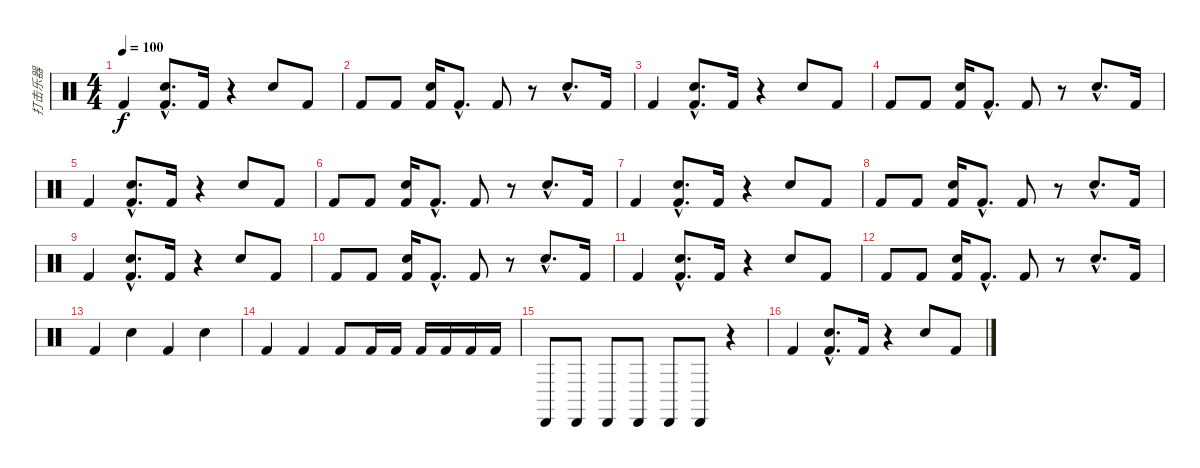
\track ("打击乐器" "打击乐器") {instrument percussion}
\staff {score}
\articulation defaults
\ts (4 4)
\tempo 100
\clef neutral
\ks c "Kick (hit) 2".4{dy f}
("Hand Clap (hit)"{hac} "Kick (hit) 2"{hac}).8{d} "Kick (hit) 2".16 r.4 "Hand Clap (hit)".8 "Kick (hit) 2".8 |
"Kick (hit) 2".8 "Kick (hit) 2".8 ("Hand Clap (hit)" "Kick (hit) 2").16 "Kick (hit) 2"{hac}.8{d} "Kick (hit) 2".8 r.8 "Hand Clap (hit)"{hac}.8{d} "Kick (hit) 2".16 |
"Kick (hit) 2".4 ("Hand Clap (hit)"{hac} "Kick (hit) 2"{hac}).8{d} "Kick (hit) 2".16 r.4 "Hand Clap (hit)".8 "Kick (hit) 2".8 |
"Kick (hit) 2".8 "Kick (hit) 2".8 ("Hand Clap (hit)" "Kick (hit) 2").16 "Kick (hit) 2"{hac}.8{d} "Kick (hit) 2".8 r.8 "Hand Clap (hit)"{hac}.8{d} "Kick (hit) 2".16 |
"Kick (hit) 2".4 ("Hand Clap (hit)"{hac} "Kick (hit) 2"{hac}).8{d} "Kick (hit) 2".16 r.4 "Hand Clap (hit)".8 "Kick (hit) 2".8 |
"Kick (hit) 2".8 "Kick (hit) 2".8 ("Hand Clap (hit)" "Kick (hit) 2").16 "Kick (hit) 2"{hac}.8{d} "Kick (hit) 2".8 r.8 "Hand Clap (hit)"{hac}.8{d} "Kick (hit) 2".16 |
"Kick (hit) 2".4 ("Hand Clap (hit)"{hac} "Kick (hit) 2"{hac}).8{d} "Kick (hit) 2".16 r.4 "Hand Clap (hit)".8 "Kick (hit) 2".8 |
"Kick (hit) 2".8 "Kick (hit) 2".8 ("Hand Clap (hit)" "Kick (hit) 2").16 "Kick (hit) 2"{hac}.8{d} "Kick (hit) 2".8 r.8 "Hand Clap (hit)"{hac}.8{d} "Kick (hit) 2".16 |
"Kick (hit) 2".4 ("Hand Clap (hit)"{hac} "Kick (hit) 2"{hac}).8{d} "Kick (hit) 2".16 r.4 "Hand Clap (hit)".8 "Kick (hit) 2".8 |
"Kick (hit) 2".8 "Kick (hit) 2".8 ("Hand Clap (hit)" "Kick (hit) 2").16 "Kick (hit) 2"{hac}.8{d} "Kick (hit) 2".8 r.8 "Hand Clap (hit)"{hac}.8{d} "Kick (hit) 2".16 |
"Kick (hit) 2".4 ("Hand Clap (hit)"{hac} "Kick (hit) 2"{hac}).8{d} "Kick (hit) 2".16 r.4 "Hand Clap (hit)".8 "Kick (hit) 2".8 |
"Kick (hit) 2".8 "Kick (hit) 2".8 ("Hand Clap (hit)" "Kick (hit) 2").16 "Kick (hit) 2"{hac}.8{d} "Kick (hit) 2".8 r.8 "Hand Clap (hit)"{hac}.8{d} "Kick (hit) 2".16 |
"Kick (hit) 2".4 "Hand Clap (hit)".4 "Kick (hit) 2".4 "Hand Clap (hit)".4 |
"Kick (hit) 2".4 "Kick (hit) 2".4 "Kick (hit) 2".8 "Kick (hit) 2".16 "Kick (hit) 2".16 "Kick (hit) 2".16 "Kick (hit) 2".16 "Kick (hit) 2".16 "Kick (hit) 2".16 |
"Cabasa (hit)".8 "Cabasa (hit)".8 "Cabasa (hit)".8 "Cabasa (hit)".8 "Cabasa (hit)".8 "Cabasa (hit)".8 r.4 |
"Kick (hit) 2".4 ("Hand Clap (hit)"{hac} "Kick (hit) 2"{hac}).8{d} "Kick (hit) 2".16 r.4 "Hand Clap (hit)".8 "Kick (hit) 2".8
